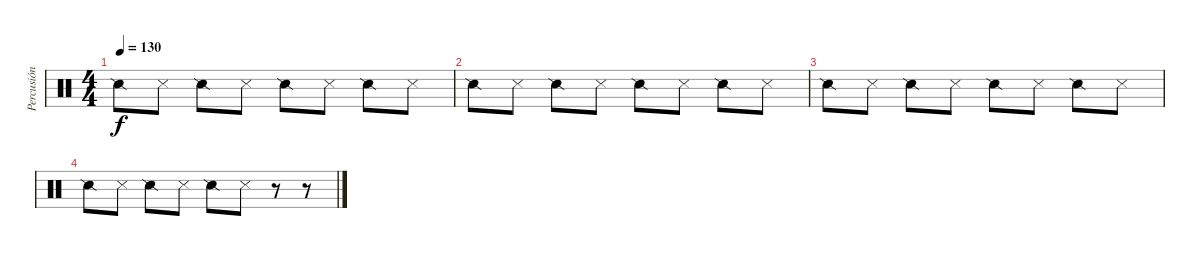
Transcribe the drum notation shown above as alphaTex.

\track ("Percusión" "Percusión") {instrument percussion}
\staff {score}
\articulation defaults
\ts (4 4)
\tempo 130
\clef neutral
\ks c "Snare (side stick) 2".8{dy f} "Snare (side stick) 3".8 "Snare (side stick) 2".8 "Snare (side stick) 3".8 "Snare (side stick) 2".8 "Snare (side stick) 3".8 "Snare (side stick) 2".8 "Snare (side stick) 3".8
|
"Snare (side stick) 2".8 "Snare (side stick) 3".8 "Snare (side stick) 2".8 "Snare (side stick) 3".8 "Snare (side stick) 2".8 "Snare (side stick) 3".8 "Snare (side stick) 2".8 "Snare (side stick) 3".8 |
"Snare (side stick) 2".8 "Snare (side stick) 3".8 "Snare (side stick) 2".8 "Snare (side stick) 3".8 "Snare (side stick) 2".8 "Snare (side stick) 3".8 "Snare (side stick) 2".8 "Snare (side stick) 3".8 |
"Snare (side stick) 2".8 "Snare (side stick) 3".8 "Snare (side stick) 2".8 "Snare (side stick) 3".8 "Snare (side stick) 2".8 "Snare (side stick) 3".8 r.8 r.8
